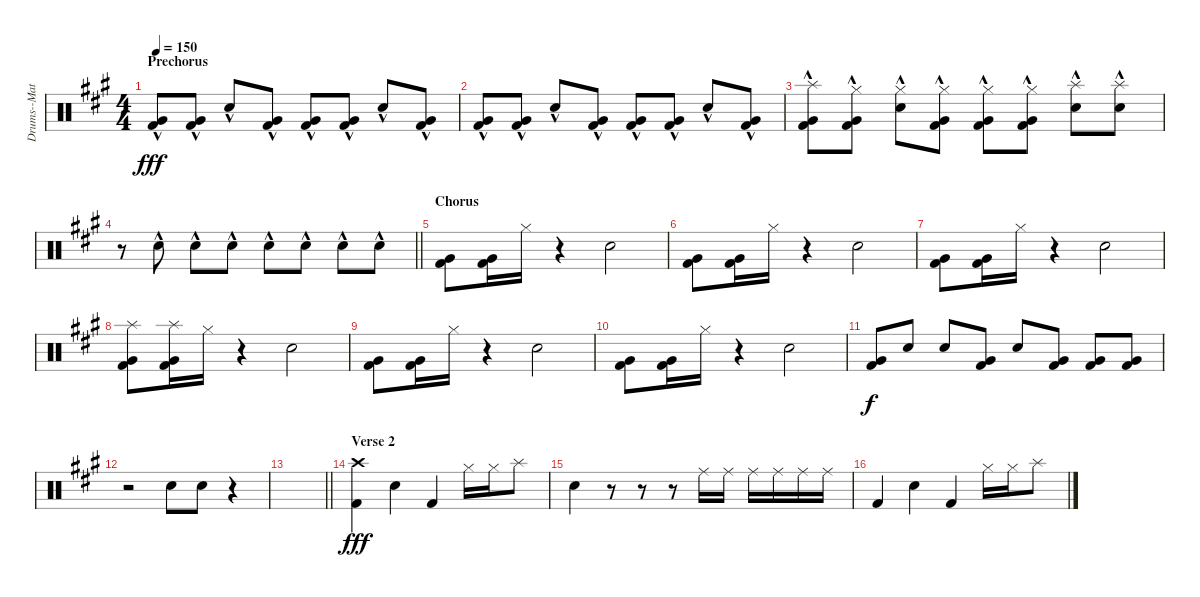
\track ("Drums--Matt Whalen" "Drums--Mat") {instrument percussion}
\staff {score}
\articulation defaults
\ts (4 4)
\section ("" "Prechorus")
\tempo 150
\clef neutral
\ks a
("Kick (hit) 2"{hac} "Very Low Tom (hit)"{hac}).8{dy fff} ("Kick (hit) 2"{hac} "Very Low Tom (hit)"{hac}).8 "Snare (hit) 2"{hac}.8 ("Kick (hit) 2"{hac} "Very Low Tom (hit)"{hac}).8 ("Kick (hit) 2"{hac} "Very Low Tom (hit)"{hac}).8 ("Kick (hit) 2"{hac} "Very Low Tom (hit)"{hac}).8 "Snare (hit) 2"{hac}.8 ("Kick (hit) 2"{hac} "Very Low Tom (hit)"{hac}).8 |
("Kick (hit) 2"{hac} "Very Low Tom (hit)"{hac}).8 ("Kick (hit) 2"{hac} "Very Low Tom (hit)"{hac}).8 "Snare (hit) 2"{hac}.8 ("Kick (hit) 2"{hac} "Very Low Tom (hit)"{hac}).8 ("Kick (hit) 2"{hac} "Very Low Tom (hit)"{hac}).8 ("Kick (hit) 2"{hac} "Very Low Tom (hit)"{hac}).8 "Snare (hit) 2"{hac}.8 ("Kick (hit) 2"{hac} "Very Low Tom (hit)"{hac}).8 |
("Splash (hit)"{hac} "Kick (hit) 2"{hac} "Very Low Tom (hit)"{hac}).8 ("Kick (hit) 2"{hac} "Very Low Tom (hit)"{hac} "Hi-Hat (closed)").8 ("Snare (hit) 2"{hac} "Hi-Hat (closed)").8 ("Kick (hit) 2"{hac} "Very Low Tom (hit)"{hac} "Hi-Hat (closed)").8 ("Kick (hit) 2"{hac} "Very Low Tom (hit)"{hac} "Hi-Hat (closed)").8 ("Kick (hit) 2"{hac} "Very Low Tom (hit)"{hac} "Hi-Hat (closed)").8 ("Snare (hit) 2"{hac} "Splash (hit)").8 ("Snare (hit) 2"{hac} "Splash (hit)").8 |
\barLineRight lightlight
r.8 "Snare (hit) 2"{hac}.8 "Snare (hit) 2"{hac}.8 "Snare (hit) 2"{hac}.8 "Snare (hit) 2"{hac}.8 "Snare (hit) 2"{hac}.8 "Snare (hit) 2"{hac}.8 "Snare (hit) 2"{hac}.8 |
\section ("" "Chorus")
("Kick (hit) 2" "Very Low Tom (hit)").8 ("Kick (hit) 2" "Very Low Tom (hit)").16 "Hi-Hat (closed)".16 r.4 "Snare (hit) 2".2 |
("Kick (hit) 2" "Very Low Tom (hit)").8 ("Kick (hit) 2" "Very Low Tom (hit)").16 "Hi-Hat (closed)".16 r.4 "Snare (hit) 2".2 |
("Kick (hit) 2" "Very Low Tom (hit)").8 ("Kick (hit) 2" "Very Low Tom (hit)").16 "Hi-Hat (closed)".16 r.4 "Snare (hit) 2".2 |
("Splash (hit)" "Kick (hit) 2" "Very Low Tom (hit)").8 ("Splash (hit)" "Kick (hit) 2" "Very Low Tom (hit)").16 "Hi-Hat (closed)".16 r.4 "Snare (hit) 2".2 |
("Kick (hit) 2" "Very Low Tom (hit)").8 ("Kick (hit) 2" "Very Low Tom (hit)").16 "Hi-Hat (closed)".16 r.4 "Snare (hit) 2".2 |
("Kick (hit) 2" "Very Low Tom (hit)").8 ("Kick (hit) 2" "Very Low Tom (hit)").16 "Hi-Hat (closed)".16 r.4 "Snare (hit) 2".2 |
("Kick (hit) 2" "Very Low Tom (hit)").8{dy f} "Snare (hit) 2".8 "Snare (hit) 2".8 ("Kick (hit) 2" "Very Low Tom (hit)").8 "Snare (hit) 2".8 ("Kick (hit) 2" "Very Low Tom (hit)").8 ("Kick (hit) 2" "Very Low Tom (hit)").8 ("Kick (hit) 2" "Very Low Tom (hit)").8 |
r.2 "Hand Clap (hit)".8 "Hand Clap (hit)".8 r.4 |
\barLineRight lightlight
|
\section ("" "Verse 2")
("Crash high (hit)" "Kick (hit) 2").4{dy fff} "Snare (hit) 2".4 "Kick (hit) 2".4 "Hi-Hat (closed)".16 "Hi-Hat (closed)".16 "Splash (hit)".8 |
"Snare (hit) 2".4 r.8 r.8 r.8 "Ride (middle)".16 "Ride (middle)".16 "Ride (middle)".16 "Ride (middle)".16 "Ride (middle)".16 "Ride (middle)".16 |
"Kick (hit) 2".4 "Snare (hit) 2".4 "Kick (hit) 2".4 "Hi-Hat (closed)".16 "Hi-Hat (closed)".16 "Splash (hit)".8
